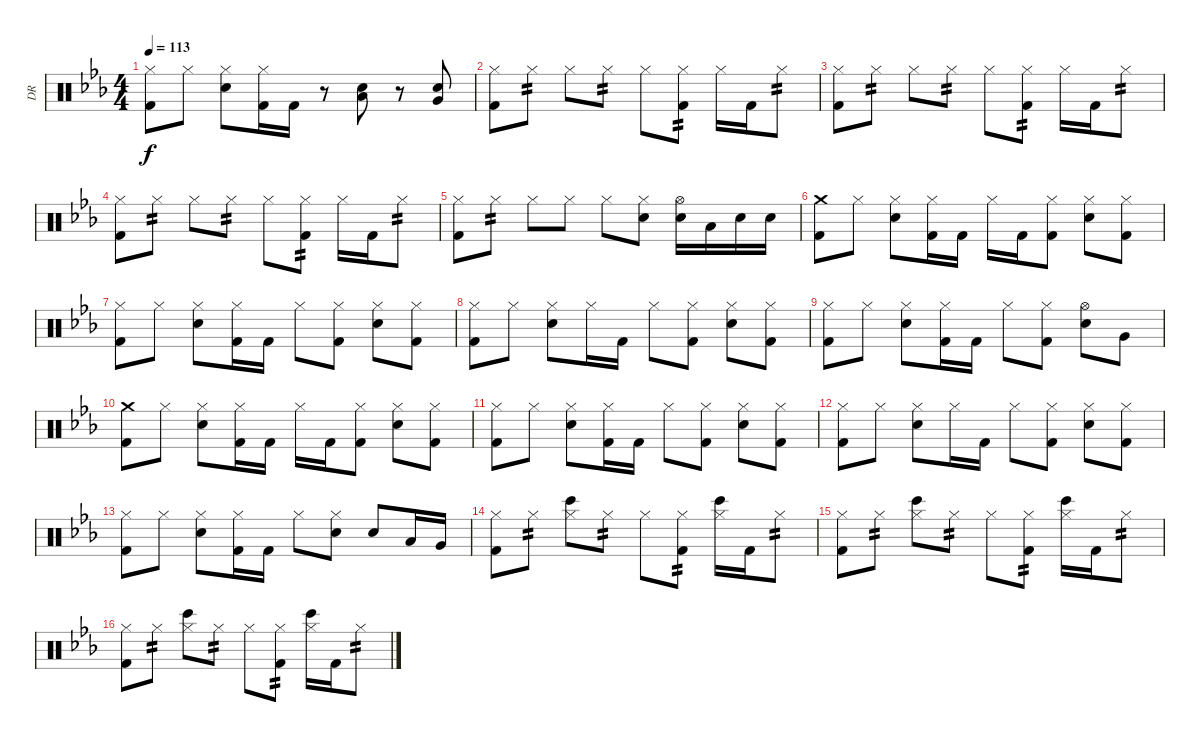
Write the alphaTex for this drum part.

\track ("DR" "DR") {instrument percussion}
\staff {score}
\articulation defaults
\ts (4 4)
\tempo 113
\clef neutral
\ks cminor
("Hi-Hat (closed)" "Kick (hit) 2").8{dy f} "Hi-Hat (closed)".8 ("Hi-Hat (closed)" "Electric Snare (hit)").8 ("Hi-Hat (closed)" "Kick (hit) 2").16 "Kick (hit) 2".16 r.8 ("Electric Snare (hit)" "Low Tom (hit)").8 r.8 ("Electric Snare (hit)" "Very Low Tom (hit)").8 |
("Hi-Hat (closed)" "Kick (hit) 2").8 "Hi-Hat (closed)".8{tp 2} "Hi-Hat (closed)".8 "Hi-Hat (closed)".8{tp 2} "Hi-Hat (closed)".8 ("Hi-Hat (closed)" "Kick (hit) 2").8{tp 2} "Hi-Hat (closed)".16 "Kick (hit) 2".16 "Hi-Hat (closed)".8{tp 2} |
("Hi-Hat (closed)" "Kick (hit) 2").8 "Hi-Hat (closed)".8{tp 2} "Hi-Hat (closed)".8 "Hi-Hat (closed)".8{tp 2} "Hi-Hat (closed)".8 ("Hi-Hat (closed)" "Kick (hit) 2").8{tp 2} "Hi-Hat (closed)".16 "Kick (hit) 2".16 "Hi-Hat (closed)".8{tp 2} |
("Hi-Hat (closed)" "Kick (hit) 2").8 "Hi-Hat (closed)".8{tp 2} "Hi-Hat (closed)".8 "Hi-Hat (closed)".8{tp 2} "Hi-Hat (closed)".8 ("Hi-Hat (closed)" "Kick (hit) 2").8{tp 2} "Hi-Hat (closed)".16 "Kick (hit) 2".16 "Hi-Hat (closed)".8{tp 2} |
("Hi-Hat (closed)" "Kick (hit) 2").8 "Hi-Hat (closed)".8{tp 2} "Hi-Hat (closed)".8 "Hi-Hat (closed)".8 "Hi-Hat (closed)".8 ("Hi-Hat (closed)" "Electric Snare (hit)").8 ("Hi-Hat (open)" "Electric Snare (hit)").16 "Low Tom (hit)".16 "Electric Snare (hit)".16 "Electric Snare (hit)".16 |
("Crash medium (hit)" "Kick (hit) 2").8 "Hi-Hat (closed)".8 ("Hi-Hat (closed)" "Electric Snare (hit)").8 ("Hi-Hat (closed)" "Kick (hit) 2").16 "Kick (hit) 2".16 "Hi-Hat (closed)".16 "Kick (hit) 2".16 ("Hi-Hat (closed)" "Kick (hit) 2").8 ("Hi-Hat (closed)" "Electric Snare (hit)").8 ("Hi-Hat (closed)" "Kick (hit) 2").8 |
("Hi-Hat (closed)" "Kick (hit) 2").8 "Hi-Hat (closed)".8 ("Hi-Hat (closed)" "Electric Snare (hit)").8 ("Hi-Hat (closed)" "Kick (hit) 2").16 "Kick (hit) 2".16 "Hi-Hat (closed)".8 ("Hi-Hat (closed)" "Kick (hit) 2").8 ("Hi-Hat (closed)" "Electric Snare (hit)").8 ("Hi-Hat (closed)" "Kick (hit) 2").8 |
("Hi-Hat (closed)" "Kick (hit) 2").8 "Hi-Hat (closed)".8 ("Hi-Hat (closed)" "Electric Snare (hit)").8 "Hi-Hat (closed)".16 "Kick (hit) 2".16 "Hi-Hat (closed)".8 ("Hi-Hat (closed)" "Kick (hit) 2").8 ("Hi-Hat (closed)" "Electric Snare (hit)").8 ("Hi-Hat (closed)" "Kick (hit) 2").8 |
("Hi-Hat (closed)" "Kick (hit) 2").8 "Hi-Hat (closed)".8 ("Hi-Hat (closed)" "Electric Snare (hit)").8 ("Hi-Hat (closed)" "Kick (hit) 2").16 "Kick (hit) 2".16 "Hi-Hat (closed)".8 ("Hi-Hat (closed)" "Kick (hit) 2").8 ("Hi-Hat (open)" "Electric Snare (hit)").8 "Very Low Tom (hit)".8 |
("Crash medium (hit)" "Kick (hit) 2").8 "Hi-Hat (closed)".8 ("Hi-Hat (closed)" "Electric Snare (hit)").8 ("Hi-Hat (closed)" "Kick (hit) 2").16 "Kick (hit) 2".16 "Hi-Hat (closed)".16 "Kick (hit) 2".16 ("Hi-Hat (closed)" "Kick (hit) 2").8 ("Hi-Hat (closed)" "Electric Snare (hit)").8 ("Hi-Hat (closed)" "Kick (hit) 2").8 |
("Hi-Hat (closed)" "Kick (hit) 2").8 "Hi-Hat (closed)".8 ("Hi-Hat (closed)" "Electric Snare (hit)").8 ("Hi-Hat (closed)" "Kick (hit) 2").16 "Kick (hit) 2".16 "Hi-Hat (closed)".8 ("Hi-Hat (closed)" "Kick (hit) 2").8 ("Hi-Hat (closed)" "Electric Snare (hit)").8 ("Hi-Hat (closed)" "Kick (hit) 2").8 |
("Hi-Hat (closed)" "Kick (hit) 2").8 "Hi-Hat (closed)".8 ("Hi-Hat (closed)" "Electric Snare (hit)").8 "Hi-Hat (closed)".16 "Kick (hit) 2".16 "Hi-Hat (closed)".8 ("Hi-Hat (closed)" "Kick (hit) 2").8 ("Hi-Hat (closed)" "Electric Snare (hit)").8 ("Hi-Hat (closed)" "Kick (hit) 2").8 |
("Hi-Hat (closed)" "Kick (hit) 2").8 "Hi-Hat (closed)".8 ("Hi-Hat (closed)" "Electric Snare (hit)").8 ("Hi-Hat (closed)" "Kick (hit) 2").16 "Kick (hit) 2".16 "Hi-Hat (closed)".8 ("Hi-Hat (closed)" "Electric Snare (hit)").8 "Electric Snare (hit)".8 "Low Tom (hit)".16 "Very Low Tom (hit)".16 |
("Hi-Hat (closed)" "Kick (hit) 2").8 "Hi-Hat (closed)".8{tp 2} ("Hi-Hat (closed)" "Bongo High (hit)").8 "Hi-Hat (closed)".8{tp 2} "Hi-Hat (closed)".8 ("Hi-Hat (closed)" "Kick (hit) 2").8{tp 2} ("Hi-Hat (closed)" "Bongo High (hit)").16 "Kick (hit) 2".16 "Hi-Hat (closed)".8{tp 2} |
("Hi-Hat (closed)" "Kick (hit) 2").8 "Hi-Hat (closed)".8{tp 2} ("Hi-Hat (closed)" "Bongo High (hit)").8 "Hi-Hat (closed)".8{tp 2} "Hi-Hat (closed)".8 ("Hi-Hat (closed)" "Kick (hit) 2").8{tp 2} ("Hi-Hat (closed)" "Bongo High (hit)").16 "Kick (hit) 2".16 "Hi-Hat (closed)".8{tp 2} |
("Hi-Hat (closed)" "Kick (hit) 2").8 "Hi-Hat (closed)".8{tp 2} ("Hi-Hat (closed)" "Bongo High (hit)").8 "Hi-Hat (closed)".8{tp 2} "Hi-Hat (closed)".8 ("Hi-Hat (closed)" "Kick (hit) 2").8{tp 2} ("Hi-Hat (closed)" "Bongo High (hit)").16 "Kick (hit) 2".16 "Hi-Hat (closed)".8{tp 2}
